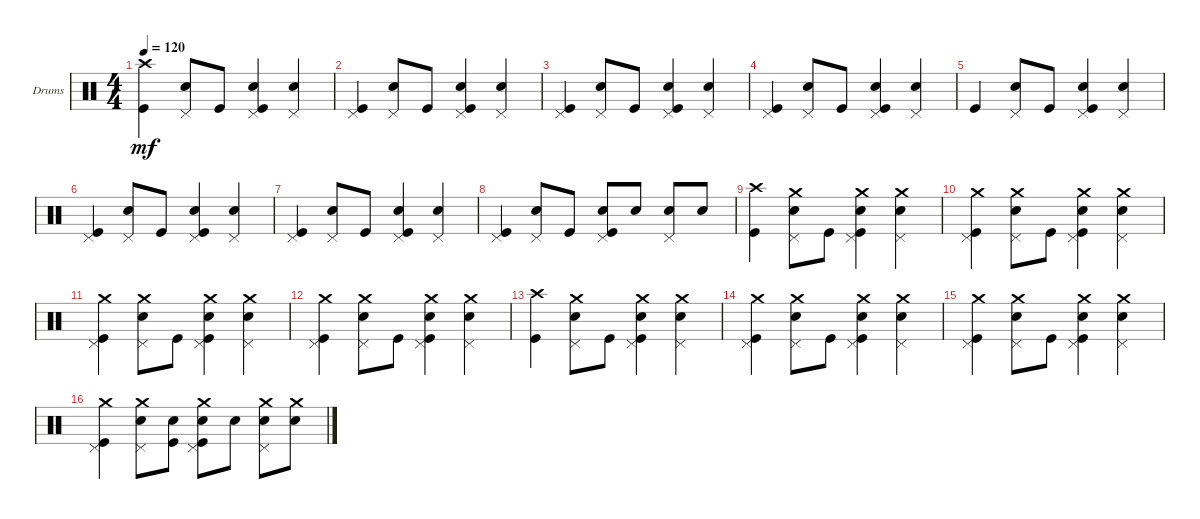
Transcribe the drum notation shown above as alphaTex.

\defaultSystemsLayout 4
\bracketExtendMode groupsimilarinstruments
\firstSystemTrackNameOrientation horizontal
\otherSystemsTrackNameOrientation horizontal
\track ("Drumkit" "Drums") {instrument percussion}
\staff {score}
\articulation defaults
\ts (4 4)
\tempo 120
\clef neutral
\ks c
("Crash high (hit)" "Kick (hit)").4{dy mf} ("Snare (hit) 2" "Pedal Hi-Hat (hit)").8 "Kick (hit)".8 ("Snare (hit) 2" "Kick (hit)" "Pedal Hi-Hat (hit)").4 ("Snare (hit) 2" "Pedal Hi-Hat (hit)").4 |
("Kick (hit)" "Pedal Hi-Hat (hit)").4 ("Snare (hit) 2" "Pedal Hi-Hat (hit)").8 "Kick (hit)".8 ("Snare (hit) 2" "Kick (hit)" "Pedal Hi-Hat (hit)").4 ("Snare (hit) 2" "Pedal Hi-Hat (hit)").4 |
("Kick (hit)" "Pedal Hi-Hat (hit)").4 ("Snare (hit) 2" "Pedal Hi-Hat (hit)").8 "Kick (hit)".8 ("Snare (hit) 2" "Kick (hit)" "Pedal Hi-Hat (hit)").4 ("Snare (hit) 2" "Pedal Hi-Hat (hit)").4 |
("Kick (hit)" "Pedal Hi-Hat (hit)").4 ("Snare (hit) 2" "Pedal Hi-Hat (hit)").8 "Kick (hit)".8 ("Snare (hit) 2" "Kick (hit)" "Pedal Hi-Hat (hit)").4 ("Snare (hit) 2" "Pedal Hi-Hat (hit)").4 |
"Kick (hit)".4 ("Snare (hit) 2" "Pedal Hi-Hat (hit)").8 "Kick (hit)".8 ("Snare (hit) 2" "Kick (hit)" "Pedal Hi-Hat (hit)").4 ("Snare (hit) 2" "Pedal Hi-Hat (hit)").4 |
("Kick (hit)" "Pedal Hi-Hat (hit)").4 ("Snare (hit) 2" "Pedal Hi-Hat (hit)").8 "Kick (hit)".8 ("Snare (hit) 2" "Kick (hit)" "Pedal Hi-Hat (hit)").4 ("Snare (hit) 2" "Pedal Hi-Hat (hit)").4 |
("Kick (hit)" "Pedal Hi-Hat (hit)").4 ("Snare (hit) 2" "Pedal Hi-Hat (hit)").8 "Kick (hit)".8 ("Snare (hit) 2" "Kick (hit)" "Pedal Hi-Hat (hit)").4 ("Snare (hit) 2" "Pedal Hi-Hat (hit)").4 |
("Kick (hit)" "Pedal Hi-Hat (hit)").4 ("Snare (hit) 2" "Pedal Hi-Hat (hit)").8 "Kick (hit)".8 ("Snare (hit) 2" "Kick (hit)" "Pedal Hi-Hat (hit)").8 "Snare (hit) 2".8 ("Snare (hit) 2" "Pedal Hi-Hat (hit)").8 "Snare (hit) 2".8 |
("Crash high (hit)" "Kick (hit)").4 ("Snare (hit) 2" "Pedal Hi-Hat (hit)" "Crash medium (hit)").8 "Kick (hit)".8 ("Snare (hit) 2" "Kick (hit)" "Pedal Hi-Hat (hit)" "Crash medium (hit)").4 ("Snare (hit) 2" "Pedal Hi-Hat (hit)" "Crash medium (hit)").4 |
("Kick (hit)" "Pedal Hi-Hat (hit)" "Crash medium (hit)").4 ("Snare (hit) 2" "Pedal Hi-Hat (hit)" "Crash medium (hit)").8 "Kick (hit)".8 ("Snare (hit) 2" "Kick (hit)" "Pedal Hi-Hat (hit)" "Crash medium (hit)").4 ("Snare (hit) 2" "Pedal Hi-Hat (hit)" "Crash medium (hit)").4 |
("Kick (hit)" "Pedal Hi-Hat (hit)" "Crash medium (hit)").4 ("Snare (hit) 2" "Pedal Hi-Hat (hit)" "Crash medium (hit)").8 "Kick (hit)".8 ("Snare (hit) 2" "Kick (hit)" "Pedal Hi-Hat (hit)" "Crash medium (hit)").4 ("Snare (hit) 2" "Pedal Hi-Hat (hit)" "Crash medium (hit)").4 |
("Kick (hit)" "Pedal Hi-Hat (hit)" "Crash medium (hit)").4 ("Snare (hit) 2" "Pedal Hi-Hat (hit)" "Crash medium (hit)").8 "Kick (hit)".8 ("Snare (hit) 2" "Kick (hit)" "Pedal Hi-Hat (hit)" "Crash medium (hit)").4 ("Snare (hit) 2" "Pedal Hi-Hat (hit)" "Crash medium (hit)").4 |
("Crash high (hit)" "Kick (hit)").4 ("Snare (hit) 2" "Pedal Hi-Hat (hit)" "Crash medium (hit)").8 "Kick (hit)".8 ("Snare (hit) 2" "Kick (hit)" "Pedal Hi-Hat (hit)" "Crash medium (hit)").4 ("Snare (hit) 2" "Pedal Hi-Hat (hit)" "Crash medium (hit)").4 |
("Kick (hit)" "Pedal Hi-Hat (hit)" "Crash medium (hit)").4 ("Snare (hit) 2" "Pedal Hi-Hat (hit)" "Crash medium (hit)").8 "Kick (hit)".8 ("Snare (hit) 2" "Kick (hit)" "Pedal Hi-Hat (hit)" "Crash medium (hit)").4 ("Snare (hit) 2" "Pedal Hi-Hat (hit)" "Crash medium (hit)").4 |
("Kick (hit)" "Pedal Hi-Hat (hit)" "Crash medium (hit)").4 ("Snare (hit) 2" "Pedal Hi-Hat (hit)" "Crash medium (hit)").8 "Kick (hit)".8 ("Snare (hit) 2" "Kick (hit)" "Pedal Hi-Hat (hit)" "Crash medium (hit)").4 ("Snare (hit) 2" "Pedal Hi-Hat (hit)" "Crash medium (hit)").4 |
("Kick (hit)" "Pedal Hi-Hat (hit)" "Crash medium (hit)").4 ("Snare (hit) 2" "Pedal Hi-Hat (hit)" "Crash medium (hit)").8 ("Kick (hit)" "Snare (hit) 2").8 ("Snare (hit) 2" "Kick (hit)" "Pedal Hi-Hat (hit)" "Crash medium (hit)").8 "Snare (hit) 2".8 ("Snare (hit) 2" "Pedal Hi-Hat (hit)" "Crash medium (hit)").8 ("Snare (hit) 2" "Crash medium (hit)").8
